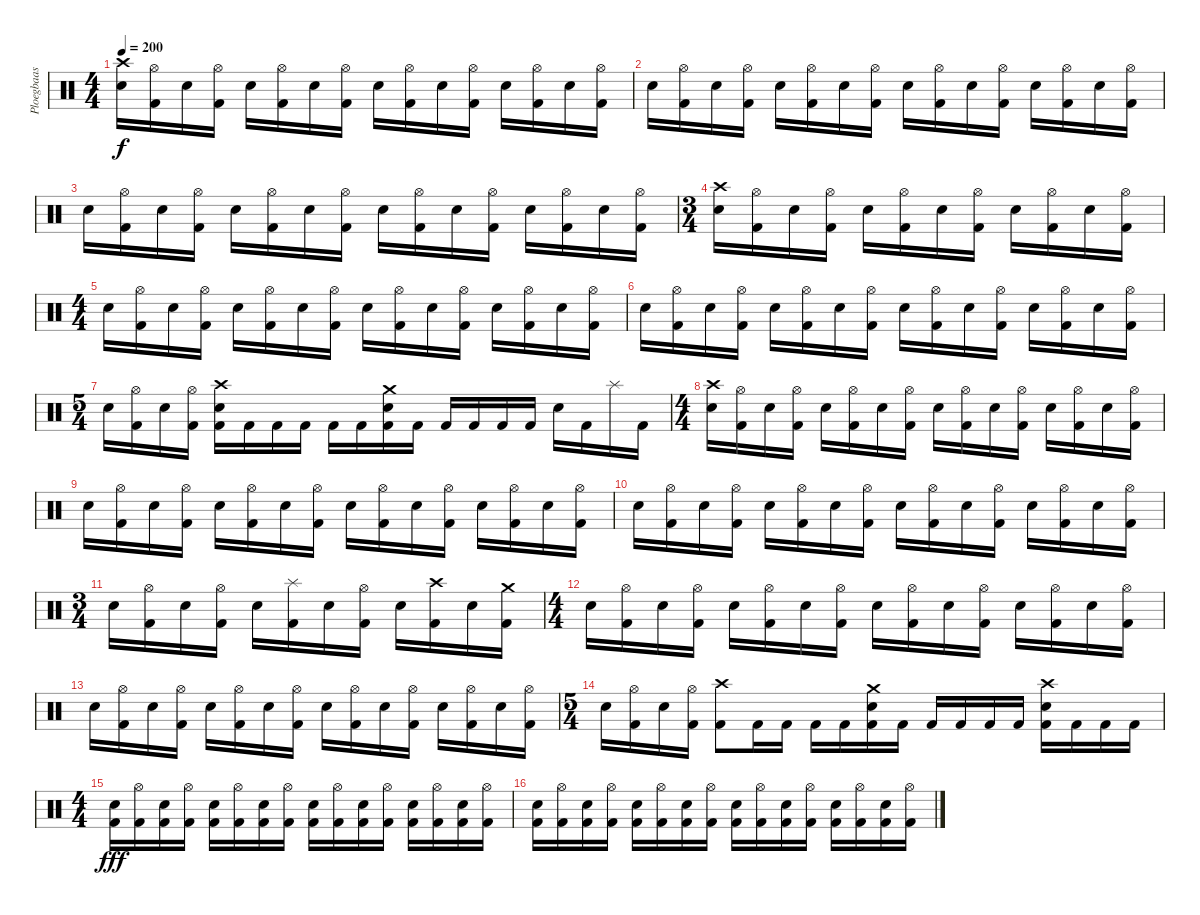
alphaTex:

\track ("Ploegbaas" "Ploegbaas") {instrument percussion}
\staff {score}
\articulation defaults
\ts (4 4)
\tempo 200
\clef neutral
\ks c
("Crash high (hit)" "Electric Snare (hit)").16{dy f} ("Hi-Hat (open)" "Kick (hit) 2").16 "Electric Snare (hit)".16 ("Hi-Hat (open)" "Kick (hit) 2").16 "Electric Snare (hit)".16 ("Hi-Hat (open)" "Kick (hit) 2").16 "Electric Snare (hit)".16 ("Hi-Hat (open)" "Kick (hit) 2").16 "Electric Snare (hit)".16 ("Hi-Hat (open)" "Kick (hit) 2").16 "Electric Snare (hit)".16 ("Hi-Hat (open)" "Kick (hit) 2").16 "Electric Snare (hit)".16 ("Hi-Hat (open)" "Kick (hit) 2").16 "Electric Snare (hit)".16 ("Hi-Hat (open)" "Kick (hit) 2").16 |
"Electric Snare (hit)".16 ("Hi-Hat (open)" "Kick (hit) 2").16 "Electric Snare (hit)".16 ("Hi-Hat (open)" "Kick (hit) 2").16 "Electric Snare (hit)".16 ("Hi-Hat (open)" "Kick (hit) 2").16 "Electric Snare (hit)".16 ("Hi-Hat (open)" "Kick (hit) 2").16 "Electric Snare (hit)".16 ("Hi-Hat (open)" "Kick (hit) 2").16 "Electric Snare (hit)".16 ("Hi-Hat (open)" "Kick (hit) 2").16 "Electric Snare (hit)".16 ("Hi-Hat (open)" "Kick (hit) 2").16 "Electric Snare (hit)".16 ("Hi-Hat (open)" "Kick (hit) 2").16 |
"Electric Snare (hit)".16 ("Hi-Hat (open)" "Kick (hit) 2").16 "Electric Snare (hit)".16 ("Hi-Hat (open)" "Kick (hit) 2").16 "Electric Snare (hit)".16 ("Hi-Hat (open)" "Kick (hit) 2").16 "Electric Snare (hit)".16 ("Hi-Hat (open)" "Kick (hit) 2").16 "Electric Snare (hit)".16 ("Hi-Hat (open)" "Kick (hit) 2").16 "Electric Snare (hit)".16 ("Hi-Hat (open)" "Kick (hit) 2").16 "Electric Snare (hit)".16 ("Hi-Hat (open)" "Kick (hit) 2").16 "Electric Snare (hit)".16 ("Hi-Hat (open)" "Kick (hit) 2").16 |
\ts (3 4)
("Crash high (hit)" "Electric Snare (hit)").16 ("Hi-Hat (open)" "Kick (hit) 2").16 "Electric Snare (hit)".16 ("Hi-Hat (open)" "Kick (hit) 2").16 "Electric Snare (hit)".16 ("Hi-Hat (open)" "Kick (hit) 2").16 "Electric Snare (hit)".16 ("Hi-Hat (open)" "Kick (hit) 2").16 "Electric Snare (hit)".16 ("Hi-Hat (open)" "Kick (hit) 2").16 "Electric Snare (hit)".16 ("Hi-Hat (open)" "Kick (hit) 2").16 |
\ts (4 4)
"Electric Snare (hit)".16 ("Hi-Hat (open)" "Kick (hit) 2").16 "Electric Snare (hit)".16 ("Hi-Hat (open)" "Kick (hit) 2").16 "Electric Snare (hit)".16 ("Hi-Hat (open)" "Kick (hit) 2").16 "Electric Snare (hit)".16 ("Hi-Hat (open)" "Kick (hit) 2").16 "Electric Snare (hit)".16 ("Hi-Hat (open)" "Kick (hit) 2").16 "Electric Snare (hit)".16 ("Hi-Hat (open)" "Kick (hit) 2").16 "Electric Snare (hit)".16 ("Hi-Hat (open)" "Kick (hit) 2").16 "Electric Snare (hit)".16 ("Hi-Hat (open)" "Kick (hit) 2").16 |
"Electric Snare (hit)".16 ("Hi-Hat (open)" "Kick (hit) 2").16 "Electric Snare (hit)".16 ("Hi-Hat (open)" "Kick (hit) 2").16 "Electric Snare (hit)".16 ("Hi-Hat (open)" "Kick (hit) 2").16 "Electric Snare (hit)".16 ("Hi-Hat (open)" "Kick (hit) 2").16 "Electric Snare (hit)".16 ("Hi-Hat (open)" "Kick (hit) 2").16 "Electric Snare (hit)".16 ("Hi-Hat (open)" "Kick (hit) 2").16 "Electric Snare (hit)".16 ("Hi-Hat (open)" "Kick (hit) 2").16 "Electric Snare (hit)".16 ("Hi-Hat (open)" "Kick (hit) 2").16 |
\ts (5 4)
"Electric Snare (hit)".16 ("Hi-Hat (open)" "Kick (hit) 2").16 "Electric Snare (hit)".16 ("Hi-Hat (open)" "Kick (hit) 2").16 ("Crash high (hit)" "Electric Snare (hit)" "Kick (hit) 2").16 "Kick (hit) 2".16 "Kick (hit) 2".16 "Kick (hit) 2".16 "Kick (hit) 2".16 "Kick (hit) 2".16 ("Crash medium (hit)" "Electric Snare (hit)" "Kick (hit) 2").16 "Kick (hit) 2".16 "Kick (hit) 2".16 "Kick (hit) 2".16 "Kick (hit) 2".16 "Kick (hit) 2".16 "Electric Snare (hit)".16 "Kick (hit) 2".16 "Splash (hit)".16 "Kick (hit) 2".16 |
\ts (4 4)
("Crash high (hit)" "Electric Snare (hit)").16 ("Hi-Hat (open)" "Kick (hit) 2").16 "Electric Snare (hit)".16 ("Hi-Hat (open)" "Kick (hit) 2").16 "Electric Snare (hit)".16 ("Hi-Hat (open)" "Kick (hit) 2").16 "Electric Snare (hit)".16 ("Hi-Hat (open)" "Kick (hit) 2").16 "Electric Snare (hit)".16 ("Hi-Hat (open)" "Kick (hit) 2").16 "Electric Snare (hit)".16 ("Hi-Hat (open)" "Kick (hit) 2").16 "Electric Snare (hit)".16 ("Hi-Hat (open)" "Kick (hit) 2").16 "Electric Snare (hit)".16 ("Hi-Hat (open)" "Kick (hit) 2").16 |
"Electric Snare (hit)".16 ("Hi-Hat (open)" "Kick (hit) 2").16 "Electric Snare (hit)".16 ("Hi-Hat (open)" "Kick (hit) 2").16 "Electric Snare (hit)".16 ("Hi-Hat (open)" "Kick (hit) 2").16 "Electric Snare (hit)".16 ("Hi-Hat (open)" "Kick (hit) 2").16 "Electric Snare (hit)".16 ("Hi-Hat (open)" "Kick (hit) 2").16 "Electric Snare (hit)".16 ("Hi-Hat (open)" "Kick (hit) 2").16 "Electric Snare (hit)".16 ("Hi-Hat (open)" "Kick (hit) 2").16 "Electric Snare (hit)".16 ("Hi-Hat (open)" "Kick (hit) 2").16 |
"Electric Snare (hit)".16 ("Hi-Hat (open)" "Kick (hit) 2").16 "Electric Snare (hit)".16 ("Hi-Hat (open)" "Kick (hit) 2").16 "Electric Snare (hit)".16 ("Hi-Hat (open)" "Kick (hit) 2").16 "Electric Snare (hit)".16 ("Hi-Hat (open)" "Kick (hit) 2").16 "Electric Snare (hit)".16 ("Hi-Hat (open)" "Kick (hit) 2").16 "Electric Snare (hit)".16 ("Hi-Hat (open)" "Kick (hit) 2").16 "Electric Snare (hit)".16 ("Hi-Hat (open)" "Kick (hit) 2").16 "Electric Snare (hit)".16 ("Hi-Hat (open)" "Kick (hit) 2").16 |
\ts (3 4)
"Electric Snare (hit)".16 ("Hi-Hat (open)" "Kick (hit) 2").16 "Electric Snare (hit)".16 ("Hi-Hat (open)" "Kick (hit) 2").16 "Electric Snare (hit)".16 ("Splash (hit)" "Kick (hit) 2").16 "Electric Snare (hit)".16 ("Hi-Hat (open)" "Kick (hit) 2").16 "Electric Snare (hit)".16 ("Crash high (hit)" "Kick (hit) 2").16 "Electric Snare (hit)".16 ("Crash medium (hit)" "Kick (hit) 2").16 |
\ts (4 4)
"Electric Snare (hit)".16 ("Hi-Hat (open)" "Kick (hit) 2").16 "Electric Snare (hit)".16 ("Hi-Hat (open)" "Kick (hit) 2").16 "Electric Snare (hit)".16 ("Hi-Hat (open)" "Kick (hit) 2").16 "Electric Snare (hit)".16 ("Hi-Hat (open)" "Kick (hit) 2").16 "Electric Snare (hit)".16 ("Hi-Hat (open)" "Kick (hit) 2").16 "Electric Snare (hit)".16 ("Hi-Hat (open)" "Kick (hit) 2").16 "Electric Snare (hit)".16 ("Hi-Hat (open)" "Kick (hit) 2").16 "Electric Snare (hit)".16 ("Hi-Hat (open)" "Kick (hit) 2").16 |
"Electric Snare (hit)".16 ("Hi-Hat (open)" "Kick (hit) 2").16 "Electric Snare (hit)".16 ("Hi-Hat (open)" "Kick (hit) 2").16 "Electric Snare (hit)".16 ("Hi-Hat (open)" "Kick (hit) 2").16 "Electric Snare (hit)".16 ("Hi-Hat (open)" "Kick (hit) 2").16 "Electric Snare (hit)".16 ("Hi-Hat (open)" "Kick (hit) 2").16 "Electric Snare (hit)".16 ("Hi-Hat (open)" "Kick (hit) 2").16 "Electric Snare (hit)".16 ("Hi-Hat (open)" "Kick (hit) 2").16 "Electric Snare (hit)".16 ("Hi-Hat (open)" "Kick (hit) 2").16 |
\ts (5 4)
"Electric Snare (hit)".16 ("Hi-Hat (open)" "Kick (hit) 2").16 "Electric Snare (hit)".16 ("Hi-Hat (open)" "Kick (hit) 2").16 ("Crash high (hit)" "Kick (hit) 2").8 "Kick (hit) 2".16 "Kick (hit) 2".16 "Kick (hit) 2".16 "Kick (hit) 2".16 ("Crash medium (hit)" "Electric Snare (hit)" "Kick (hit) 2").16 "Kick (hit) 2".16 "Kick (hit) 2".16 "Kick (hit) 2".16 "Kick (hit) 2".16 "Kick (hit) 2".16 ("Crash high (hit)" "Electric Snare (hit)" "Kick (hit) 2").16 "Kick (hit) 2".16 "Kick (hit) 2".16 "Kick (hit) 2".16 |
\ts (4 4)
("Electric Snare (hit)" "Kick (hit) 2").16{dy fff} ("Hi-Hat (open)" "Kick (hit) 2").16 ("Electric Snare (hit)" "Kick (hit) 2").16 ("Hi-Hat (open)" "Kick (hit) 2").16 ("Electric Snare (hit)" "Kick (hit) 2").16 ("Hi-Hat (open)" "Kick (hit) 2").16 ("Electric Snare (hit)" "Kick (hit) 2").16 ("Hi-Hat (open)" "Kick (hit) 2").16 ("Electric Snare (hit)" "Kick (hit) 2").16 ("Hi-Hat (open)" "Kick (hit) 2").16 ("Electric Snare (hit)" "Kick (hit) 2").16 ("Hi-Hat (open)" "Kick (hit) 2").16 ("Electric Snare (hit)" "Kick (hit) 2").16 ("Hi-Hat (open)" "Kick (hit) 2").16 ("Electric Snare (hit)" "Kick (hit) 2").16 ("Hi-Hat (open)" "Kick (hit) 2").16 |
("Electric Snare (hit)" "Kick (hit) 2").16 ("Hi-Hat (open)" "Kick (hit) 2").16 ("Electric Snare (hit)" "Kick (hit) 2").16 ("Hi-Hat (open)" "Kick (hit) 2").16 ("Electric Snare (hit)" "Kick (hit) 2").16 ("Hi-Hat (open)" "Kick (hit) 2").16 ("Electric Snare (hit)" "Kick (hit) 2").16 ("Hi-Hat (open)" "Kick (hit) 2").16 ("Electric Snare (hit)" "Kick (hit) 2").16 ("Hi-Hat (open)" "Kick (hit) 2").16 ("Electric Snare (hit)" "Kick (hit) 2").16 ("Hi-Hat (open)" "Kick (hit) 2").16 ("Electric Snare (hit)" "Kick (hit) 2").16 ("Hi-Hat (open)" "Kick (hit) 2").16 ("Electric Snare (hit)" "Kick (hit) 2").16 ("Hi-Hat (open)" "Kick (hit) 2").16
